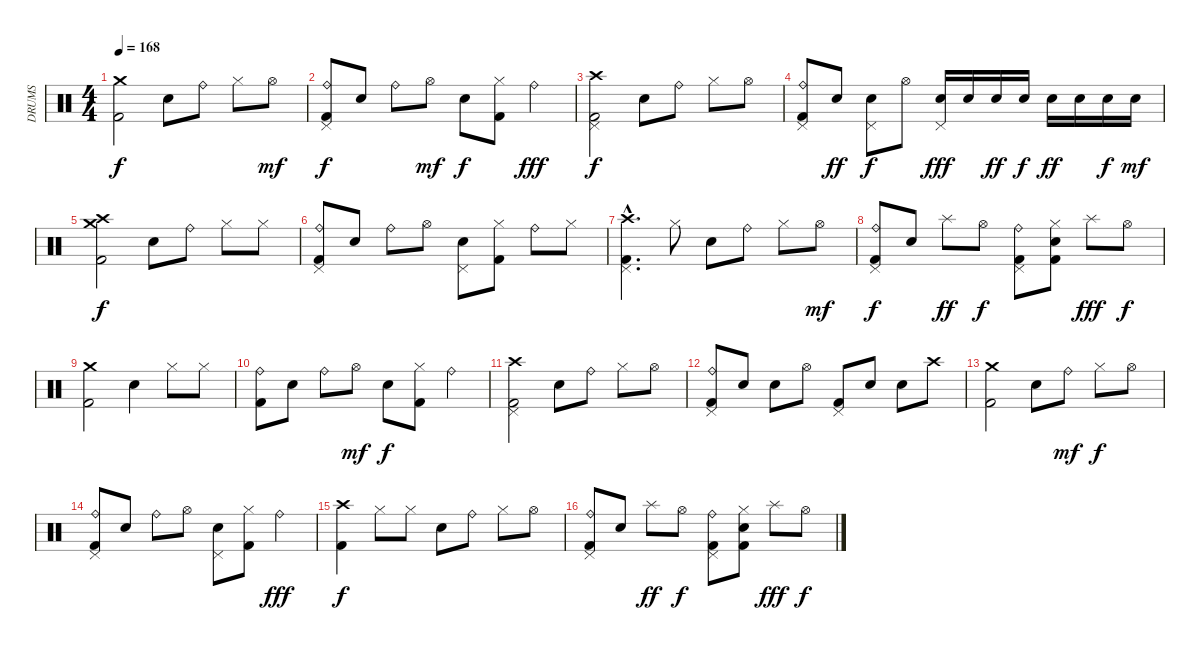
\track ("DRUMS" "DRUMS") {instrument percussion}
\staff {score}
\articulation defaults
\ts (4 4)
\tempo 168
\clef neutral
\ks c
("Crash medium (hit)" "Kick (hit) 2").2{dy f} "Electric Snare (hit)".8 "Ride (bell)".8 "Hi-Hat (closed)".8 "Hi-Hat (open)".8{dy mf} |
("Ride (bell)" "Pedal Hi-Hat (hit)" "Kick (hit) 2").8{dy f} "Electric Snare (hit)".8 "Ride (bell)".8 "Hi-Hat (open)".8{dy mf} "Electric Snare (hit)".8{dy f} ("Hi-Hat (closed)" "Kick (hit) 2").8 "Ride (bell)".4{dy fff} |
("Crash high (hit)" "Pedal Hi-Hat (hit)" "Kick (hit) 2").2{dy f} "Electric Snare (hit)".8 "Ride (bell)".8 "Hi-Hat (closed)".8 "Hi-Hat (open)".8 |
("Ride (bell)" "Pedal Hi-Hat (hit)" "Kick (hit) 2").8 "Electric Snare (hit)".8{dy ff} ("Electric Snare (hit)" "Pedal Hi-Hat (hit)").8{dy f} "Hi-Hat (open)".8 ("Electric Snare (hit)" "Pedal Hi-Hat (hit)").16{dy fff} "Electric Snare (hit)".16 "Electric Snare (hit)".16{dy ff} "Electric Snare (hit)".16{dy f} "Electric Snare (hit)".16{dy ff} "Electric Snare (hit)".16 "Electric Snare (hit)".16{dy f} "Electric Snare (hit)".16{dy mf} |
("Crash medium (hit)" "Crash high (hit)" "Kick (hit) 2").2{dy f} "Electric Snare (hit)".8 "Ride (bell)".8 "Hi-Hat (closed)".8 "Hi-Hat (closed)".8 |
("Ride (bell)" "Pedal Hi-Hat (hit)" "Kick (hit) 2").8 "Electric Snare (hit)".8 "Ride (bell)".8 "Hi-Hat (open)".8 ("Electric Snare (hit)" "Pedal Hi-Hat (hit)").8 ("Hi-Hat (closed)" "Kick (hit) 2").8 "Ride (bell)".8 "Hi-Hat (closed)".8 |
("Crash high (hit)"{hac} "Pedal Hi-Hat (hit)"{hac} "Kick (hit) 2"{hac}).4{d} "Hi-Hat (closed)".8 "Electric Snare (hit)".8 "Ride (bell)".8 "Hi-Hat (closed)".8 "Hi-Hat (open)".8{dy mf} |
("Ride (bell)" "Pedal Hi-Hat (hit)" "Kick (hit) 2").8{dy f} "Electric Snare (hit)".8 "Splash (hit)".8{dy ff} "Hi-Hat (open)".8{dy f} ("Ride (bell)" "Pedal Hi-Hat (hit)" "Kick (hit) 2").8 ("Hi-Hat (closed)" "Electric Snare (hit)" "Kick (hit) 2").8 "Splash (hit)".8{dy fff} "Hi-Hat (open)".8{dy f} |
("Crash medium (hit)" "Kick (hit) 2").2 "Electric Snare (hit)".4 "Hi-Hat (closed)".8 "Hi-Hat (closed)".8 |
("Ride (bell)" "Kick (hit) 2").8 "Electric Snare (hit)".8 "Ride (bell)".8 "Hi-Hat (open)".8{dy mf} "Electric Snare (hit)".8{dy f} ("Hi-Hat (closed)" "Kick (hit) 2").8 "Ride (bell)".4 |
("Crash high (hit)" "Pedal Hi-Hat (hit)" "Kick (hit) 2").2 "Electric Snare (hit)".8 "Ride (bell)".8 "Hi-Hat (closed)".8 "Hi-Hat (open)".8 |
("Ride (bell)" "Pedal Hi-Hat (hit)" "Kick (hit) 2").8 "Electric Snare (hit)".8 "Electric Snare (hit)".8 "Hi-Hat (open)".8 ("Pedal Hi-Hat (hit)" "Kick (hit) 2").8 "Electric Snare (hit)".8 "Electric Snare (hit)".8 "Crash high (hit)".8 |
("Crash medium (hit)" "Kick (hit) 2").2 "Electric Snare (hit)".8 "Ride (bell)".8{dy mf} "Hi-Hat (closed)".8{dy f} "Hi-Hat (open)".8 |
("Ride (bell)" "Pedal Hi-Hat (hit)" "Kick (hit) 2").8 "Electric Snare (hit)".8 "Ride (bell)".8 "Hi-Hat (open)".8 ("Electric Snare (hit)" "Pedal Hi-Hat (hit)").8 ("Hi-Hat (closed)" "Kick (hit) 2").8 "Ride (bell)".4{dy fff} |
("Crash high (hit)" "Kick (hit) 2").4{dy f} "Hi-Hat (closed)".8 "Hi-Hat (closed)".8 "Electric Snare (hit)".8 "Ride (bell)".8 "Hi-Hat (closed)".8 "Hi-Hat (open)".8 |
("Ride (bell)" "Pedal Hi-Hat (hit)" "Kick (hit) 2").8 "Electric Snare (hit)".8 "Splash (hit)".8{dy ff} "Hi-Hat (open)".8{dy f} ("Ride (bell)" "Pedal Hi-Hat (hit)" "Kick (hit) 2").8 ("Hi-Hat (closed)" "Electric Snare (hit)" "Kick (hit) 2").8 "Splash (hit)".8{dy fff} "Hi-Hat (open)".8{dy f}
